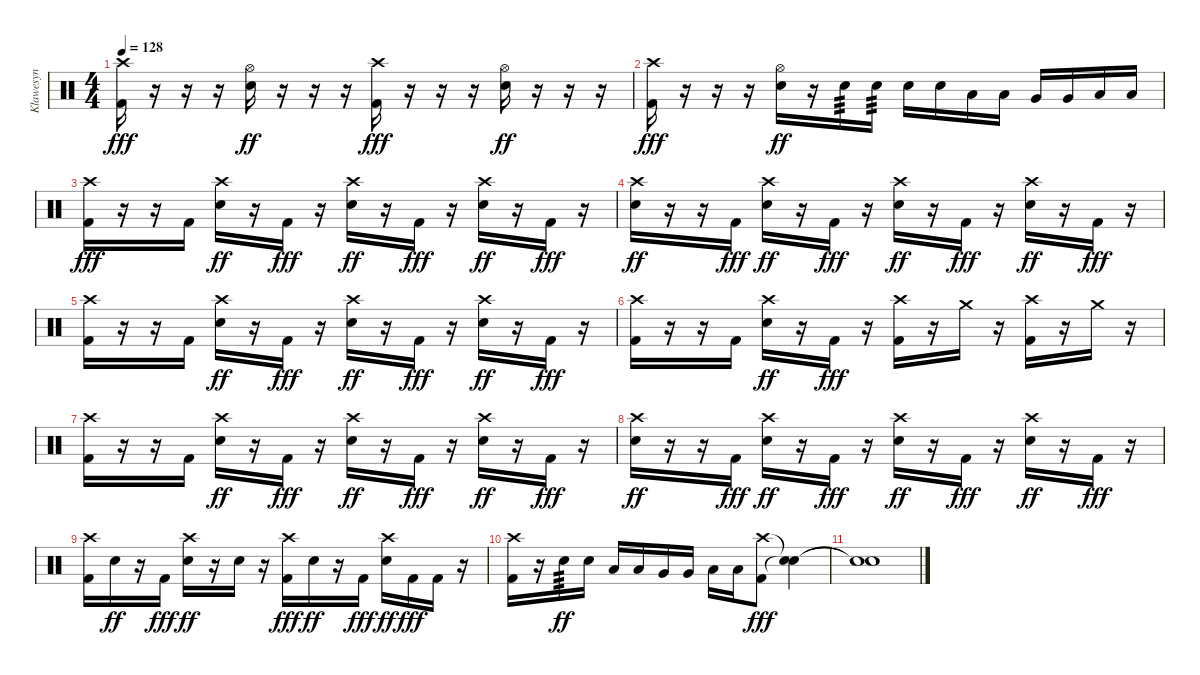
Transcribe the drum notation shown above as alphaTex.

\track ("Klawesyn" "Klawesyn") {instrument percussion}
\staff {score}
\articulation defaults
\ts (4 4)
\tempo 128
\clef neutral
\ks c
("Crash high (hit)" "Kick (hit) 2").16{dy fff} r.16 r.16 r.16 ("Hi-Hat (open)" "Electric Snare (hit)").16{dy ff} r.16 r.16 r.16 ("Crash high (hit)" "Kick (hit) 2").16{dy fff} r.16 r.16 r.16 ("Hi-Hat (open)" "Electric Snare (hit)").16{dy ff} r.16 r.16 r.16 |
("Crash high (hit)" "Kick (hit) 2").16{dy fff} r.16 r.16 r.16 ("Hi-Hat (open)" "Electric Snare (hit)").16{dy ff} r.16 "Electric Snare (hit)".16{tp 3} "Electric Snare (hit)".16{tp 3} "Electric Snare (hit)".16 "Electric Snare (hit)".16 "Low Tom (hit)".16 "Low Tom (hit)".16 "Very Low Tom (hit)".16 "Very Low Tom (hit)".16 "Low Floor Tom (hit)".16 "Low Floor Tom (hit)".16 |
("Crash high (hit)" "Kick (hit) 2").16{dy fff} r.16 r.16 "Kick (hit) 2".16 ("Crash high (hit)" "Electric Snare (hit)").16{dy ff} r.16 "Kick (hit) 2".16{dy fff} r.16 ("Crash high (hit)" "Electric Snare (hit)").16{dy ff} r.16 "Kick (hit) 2".16{dy fff} r.16 ("Crash high (hit)" "Electric Snare (hit)").16{dy ff} r.16 "Kick (hit) 2".16{dy fff} r.16 |
("Crash high (hit)" "Electric Snare (hit)").16{dy ff} r.16 r.16 "Kick (hit) 2".16{dy fff} ("Crash high (hit)" "Electric Snare (hit)").16{dy ff} r.16 "Kick (hit) 2".16{dy fff} r.16 ("Crash high (hit)" "Electric Snare (hit)").16{dy ff} r.16 "Kick (hit) 2".16{dy fff} r.16 ("Crash high (hit)" "Electric Snare (hit)").16{dy ff} r.16 "Kick (hit) 2".16{dy fff} r.16 |
("Crash high (hit)" "Kick (hit) 2").16 r.16 r.16 "Kick (hit) 2".16 ("Crash high (hit)" "Electric Snare (hit)").16{dy ff} r.16 "Kick (hit) 2".16{dy fff} r.16 ("Crash high (hit)" "Electric Snare (hit)").16{dy ff} r.16 "Kick (hit) 2".16{dy fff} r.16 ("Crash high (hit)" "Electric Snare (hit)").16{dy ff} r.16 "Kick (hit) 2".16{dy fff} r.16 |
("Crash high (hit)" "Kick (hit) 2").16 r.16 r.16 "Kick (hit) 2".16 ("Crash high (hit)" "Electric Snare (hit)").16{dy ff} r.16 "Kick (hit) 2".16{dy fff} r.16 ("Crash high (hit)" "Kick (hit) 2").16 r.16 "Crash medium (hit)".16 r.16 ("Crash high (hit)" "Kick (hit) 2").16 r.16 "Crash medium (hit)".16 r.16 |
("Crash high (hit)" "Kick (hit) 2").16 r.16 r.16 "Kick (hit) 2".16 ("Crash high (hit)" "Electric Snare (hit)").16{dy ff} r.16 "Kick (hit) 2".16{dy fff} r.16 ("Crash high (hit)" "Electric Snare (hit)").16{dy ff} r.16 "Kick (hit) 2".16{dy fff} r.16 ("Crash high (hit)" "Electric Snare (hit)").16{dy ff} r.16 "Kick (hit) 2".16{dy fff} r.16 |
("Crash high (hit)" "Electric Snare (hit)").16{dy ff} r.16 r.16 "Kick (hit) 2".16{dy fff} ("Crash high (hit)" "Electric Snare (hit)").16{dy ff} r.16 "Kick (hit) 2".16{dy fff} r.16 ("Crash high (hit)" "Electric Snare (hit)").16{dy ff} r.16 "Kick (hit) 2".16{dy fff} r.16 ("Crash high (hit)" "Electric Snare (hit)").16{dy ff} r.16 "Kick (hit) 2".16{dy fff} r.16 |
("Crash high (hit)" "Kick (hit) 2").16 "Electric Snare (hit)".16{dy ff} r.16 "Kick (hit) 2".16{dy fff} ("Crash high (hit)" "Electric Snare (hit)").16{dy ff} r.16 "Electric Snare (hit)".16 r.16 ("Crash high (hit)" "Kick (hit) 2").16{dy fff} "Electric Snare (hit)".16{dy ff} r.16 "Kick (hit) 2".16{dy fff} ("Crash high (hit)" "Electric Snare (hit)").16{dy ff} "Kick (hit) 2".16{dy fff} "Kick (hit) 2".16 r.16 |
("Crash high (hit)" "Kick (hit) 2").16 r.16 "Electric Snare (hit)".16{tp 3 dy ff} "Electric Snare (hit)".16 "Low Tom (hit)".16 "Low Tom (hit)".16 "Very Low Tom (hit)".16 "Very Low Tom (hit)".16 "Low Floor Tom (hit)".16 "Low Floor Tom (hit)".16 ("Crash high (hit)" "Kick (hit) 2").8{dy fff} ("Snare (hit)"{t} "Snare (hit)"{t}).4 |
("Snare (hit)"{t} "Snare (hit)"{t}).1
